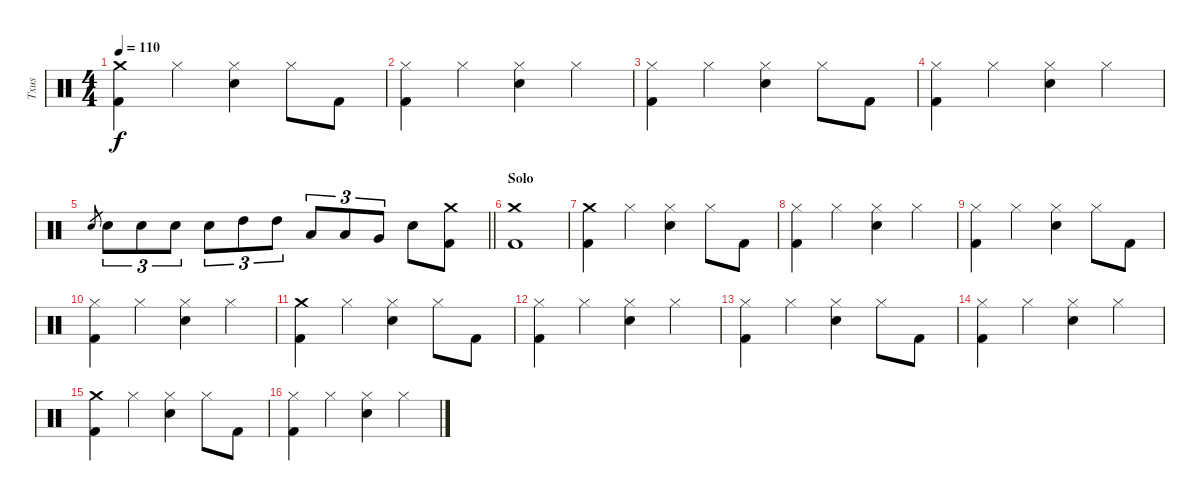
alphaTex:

\track ("Txus" "Txus") {instrument percussion}
\staff {score}
\articulation defaults
\ts (4 4)
\tempo 110
\clef neutral
\ks c
("Crash medium (hit)" "Kick (hit) 2").4{dy f} "Hi-Hat (closed)".4 ("Hi-Hat (closed)" "Electric Snare (hit)").4 "Hi-Hat (closed)".8 "Kick (hit) 2".8 |
("Hi-Hat (closed)" "Kick (hit) 2").4 "Hi-Hat (closed)".4 ("Hi-Hat (closed)" "Electric Snare (hit)").4 "Hi-Hat (closed)".4 |
("Hi-Hat (closed)" "Kick (hit) 2").4 "Hi-Hat (closed)".4 ("Hi-Hat (closed)" "Electric Snare (hit)").4 "Hi-Hat (closed)".8 "Kick (hit) 2".8 |
("Hi-Hat (closed)" "Kick (hit) 2").4 "Hi-Hat (closed)".4 ("Hi-Hat (closed)" "Electric Snare (hit)").4 "Hi-Hat (closed)".4 |
\barLineRight lightlight "Electric Snare (hit)".8{gr} "Electric Snare (hit)".8{tu (3 2)} "Electric Snare (hit)".8{tu (3 2)} "Electric Snare (hit)".8{tu (3 2)} "Electric Snare (hit)".8{tu (3 2)} "High Tom (hit)".8{tu (3 2)} "High Tom (hit)".8{tu (3 2)} "Low Tom (hit)".8{tu (3 2)} "Low Tom (hit)".8{tu (3 2)} "Very Low Tom (hit)".8{tu (3 2)} "Electric Snare (hit)".8
("Crash medium (hit)" "Kick (hit) 2").8 |
\section ("" "Solo")
("Crash medium (hit)" "Kick (hit) 2").1 |
("Crash medium (hit)" "Kick (hit) 2").4 "Hi-Hat (closed)".4 ("Hi-Hat (closed)" "Electric Snare (hit)").4 "Hi-Hat (closed)".8 "Kick (hit) 2".8 |
("Hi-Hat (closed)" "Kick (hit) 2").4 "Hi-Hat (closed)".4 ("Hi-Hat (closed)" "Electric Snare (hit)").4 "Hi-Hat (closed)".4 |
("Hi-Hat (closed)" "Kick (hit) 2").4 "Hi-Hat (closed)".4 ("Hi-Hat (closed)" "Electric Snare (hit)").4 "Hi-Hat (closed)".8 "Kick (hit) 2".8 |
("Hi-Hat (closed)" "Kick (hit) 2").4 "Hi-Hat (closed)".4 ("Hi-Hat (closed)" "Electric Snare (hit)").4 "Hi-Hat (closed)".4 |
("Crash medium (hit)" "Kick (hit) 2").4 "Hi-Hat (closed)".4 ("Hi-Hat (closed)" "Electric Snare (hit)").4 "Hi-Hat (closed)".8 "Kick (hit) 2".8 |
("Hi-Hat (closed)" "Kick (hit) 2").4 "Hi-Hat (closed)".4 ("Hi-Hat (closed)" "Electric Snare (hit)").4 "Hi-Hat (closed)".4 |
("Hi-Hat (closed)" "Kick (hit) 2").4 "Hi-Hat (closed)".4 ("Hi-Hat (closed)" "Electric Snare (hit)").4 "Hi-Hat (closed)".8 "Kick (hit) 2".8 |
("Hi-Hat (closed)" "Kick (hit) 2").4 "Hi-Hat (closed)".4 ("Hi-Hat (closed)" "Electric Snare (hit)").4 "Hi-Hat (closed)".4 |
("Crash medium (hit)" "Kick (hit) 2").4 "Hi-Hat (closed)".4 ("Hi-Hat (closed)" "Electric Snare (hit)").4 "Hi-Hat (closed)".8 "Kick (hit) 2".8 |
("Hi-Hat (closed)" "Kick (hit) 2").4 "Hi-Hat (closed)".4 ("Hi-Hat (closed)" "Electric Snare (hit)").4 "Hi-Hat (closed)".4
